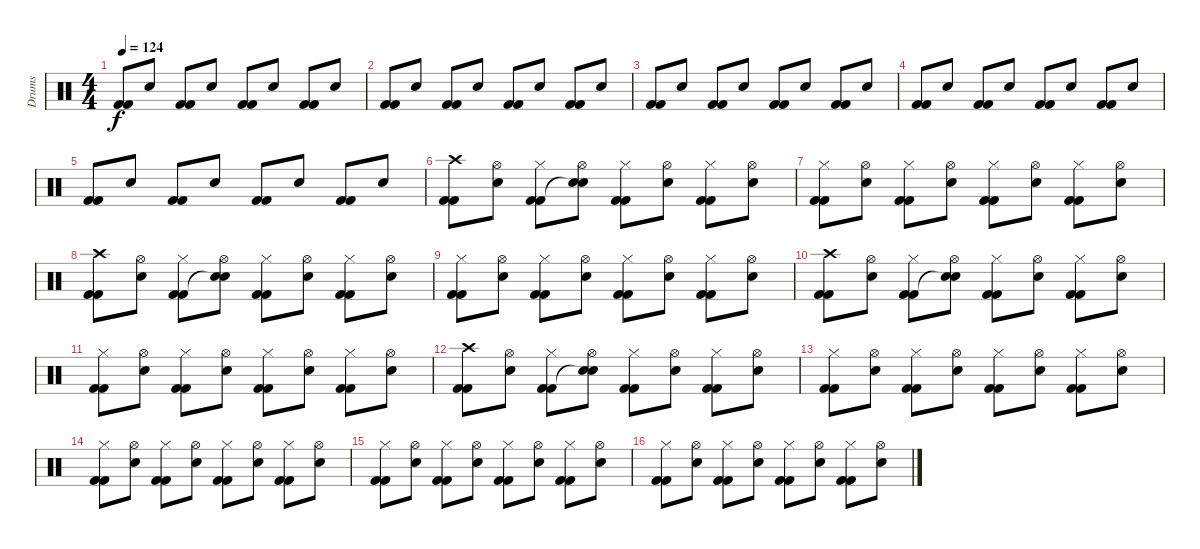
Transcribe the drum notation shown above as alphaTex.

\track ("Drums" "Drums") {instrument percussion}
\staff {score}
\articulation defaults
\ts (4 4)
\tempo 124
\clef neutral
\ks c
("Kick (hit) 2" "Kick (hit) 2").8{dy f} "Hand Clap (hit)".8 ("Kick (hit) 2" "Kick (hit) 2").8 "Hand Clap (hit)".8 ("Kick (hit) 2" "Kick (hit) 2").8 "Hand Clap (hit)".8 ("Kick (hit) 2" "Kick (hit) 2").8 "Hand Clap (hit)".8 |
("Kick (hit) 2" "Kick (hit) 2").8 "Hand Clap (hit)".8 ("Kick (hit) 2" "Kick (hit) 2").8 "Hand Clap (hit)".8 ("Kick (hit) 2" "Kick (hit) 2").8 "Hand Clap (hit)".8 ("Kick (hit) 2" "Kick (hit) 2").8 "Hand Clap (hit)".8 |
("Kick (hit) 2" "Kick (hit) 2").8 "Hand Clap (hit)".8 ("Kick (hit) 2" "Kick (hit) 2").8 "Hand Clap (hit)".8 ("Kick (hit) 2" "Kick (hit) 2").8 "Hand Clap (hit)".8 ("Kick (hit) 2" "Kick (hit) 2").8 "Hand Clap (hit)".8 |
("Kick (hit) 2" "Kick (hit) 2").8 "Hand Clap (hit)".8 ("Kick (hit) 2" "Kick (hit) 2").8 "Hand Clap (hit)".8 ("Kick (hit) 2" "Kick (hit) 2").8 "Hand Clap (hit)".8 ("Kick (hit) 2" "Kick (hit) 2").8 "Hand Clap (hit)".8 |
("Kick (hit) 2" "Kick (hit) 2").8 "Hand Clap (hit)".8 ("Kick (hit) 2" "Kick (hit) 2").8 "Hand Clap (hit)".8 ("Kick (hit) 2" "Kick (hit) 2").8 "Hand Clap (hit)".8 ("Kick (hit) 2" "Kick (hit) 2").8 "Hand Clap (hit)".8 |
("Kick (hit) 2" "Kick (hit) 2" "Crash high (hit)").8 ("Hand Clap (hit)" "Hi-Hat (open)").8 ("Kick (hit) 2" "Kick (hit) 2" "Hi-Hat (closed)").8 ("Hand Clap (hit)" "Snare (hit)"{t} "Hi-Hat (open)").8 ("Kick (hit) 2" "Kick (hit) 2" "Hi-Hat (closed)").8 ("Hand Clap (hit)" "Hi-Hat (open)").8 ("Kick (hit) 2" "Kick (hit) 2" "Hi-Hat (closed)").8 ("Hand Clap (hit)" "Hi-Hat (open)").8 |
("Kick (hit) 2" "Kick (hit) 2" "Hi-Hat (closed)").8 ("Hand Clap (hit)" "Hi-Hat (open)").8 ("Kick (hit) 2" "Kick (hit) 2" "Hi-Hat (closed)").8 ("Hand Clap (hit)" "Hi-Hat (open)").8 ("Kick (hit) 2" "Kick (hit) 2" "Hi-Hat (closed)").8 ("Hand Clap (hit)" "Hi-Hat (open)").8 ("Kick (hit) 2" "Kick (hit) 2" "Hi-Hat (closed)").8 ("Hand Clap (hit)" "Hi-Hat (open)").8 |
("Kick (hit) 2" "Kick (hit) 2" "Crash high (hit)").8 ("Hand Clap (hit)" "Hi-Hat (open)").8 ("Kick (hit) 2" "Kick (hit) 2" "Hi-Hat (closed)").8 ("Hand Clap (hit)" "Snare (hit)"{t} "Hi-Hat (open)").8 ("Kick (hit) 2" "Kick (hit) 2" "Hi-Hat (closed)").8 ("Hand Clap (hit)" "Hi-Hat (open)").8 ("Kick (hit) 2" "Kick (hit) 2" "Hi-Hat (closed)").8 ("Hand Clap (hit)" "Hi-Hat (open)").8 |
("Kick (hit) 2" "Kick (hit) 2" "Hi-Hat (closed)").8 ("Hand Clap (hit)" "Hi-Hat (open)").8 ("Kick (hit) 2" "Kick (hit) 2" "Hi-Hat (closed)").8 ("Hand Clap (hit)" "Hi-Hat (open)").8 ("Kick (hit) 2" "Kick (hit) 2" "Hi-Hat (closed)").8 ("Hand Clap (hit)" "Hi-Hat (open)").8 ("Kick (hit) 2" "Kick (hit) 2" "Hi-Hat (closed)").8 ("Hand Clap (hit)" "Hi-Hat (open)").8 |
("Kick (hit) 2" "Kick (hit) 2" "Crash high (hit)").8 ("Hand Clap (hit)" "Hi-Hat (open)").8 ("Kick (hit) 2" "Kick (hit) 2" "Hi-Hat (closed)").8 ("Hand Clap (hit)" "Snare (hit)"{t} "Hi-Hat (open)").8 ("Kick (hit) 2" "Kick (hit) 2" "Hi-Hat (closed)").8 ("Hand Clap (hit)" "Hi-Hat (open)").8 ("Kick (hit) 2" "Kick (hit) 2" "Hi-Hat (closed)").8 ("Hand Clap (hit)" "Hi-Hat (open)").8 |
("Kick (hit) 2" "Kick (hit) 2" "Hi-Hat (closed)").8 ("Hand Clap (hit)" "Hi-Hat (open)").8 ("Kick (hit) 2" "Kick (hit) 2" "Hi-Hat (closed)").8 ("Hand Clap (hit)" "Hi-Hat (open)").8 ("Kick (hit) 2" "Kick (hit) 2" "Hi-Hat (closed)").8 ("Hand Clap (hit)" "Hi-Hat (open)").8 ("Kick (hit) 2" "Kick (hit) 2" "Hi-Hat (closed)").8 ("Hand Clap (hit)" "Hi-Hat (open)").8 |
("Kick (hit) 2" "Kick (hit) 2" "Crash high (hit)").8 ("Hand Clap (hit)" "Hi-Hat (open)").8 ("Kick (hit) 2" "Kick (hit) 2" "Hi-Hat (closed)").8 ("Hand Clap (hit)" "Snare (hit)"{t} "Hi-Hat (open)").8 ("Kick (hit) 2" "Kick (hit) 2" "Hi-Hat (closed)").8 ("Hand Clap (hit)" "Hi-Hat (open)").8 ("Kick (hit) 2" "Kick (hit) 2" "Hi-Hat (closed)").8 ("Hand Clap (hit)" "Hi-Hat (open)").8 |
("Kick (hit) 2" "Kick (hit) 2" "Hi-Hat (closed)").8 ("Hand Clap (hit)" "Hi-Hat (open)").8 ("Kick (hit) 2" "Kick (hit) 2" "Hi-Hat (closed)").8 ("Hand Clap (hit)" "Hi-Hat (open)").8 ("Kick (hit) 2" "Kick (hit) 2" "Hi-Hat (closed)").8 ("Hand Clap (hit)" "Hi-Hat (open)").8 ("Kick (hit) 2" "Kick (hit) 2" "Hi-Hat (closed)").8 ("Hand Clap (hit)" "Hi-Hat (open)").8 |
("Kick (hit) 2" "Kick (hit) 2" "Hi-Hat (closed)").8 ("Hand Clap (hit)" "Hi-Hat (open)").8 ("Kick (hit) 2" "Kick (hit) 2" "Hi-Hat (closed)").8 ("Hand Clap (hit)" "Hi-Hat (open)").8 ("Kick (hit) 2" "Kick (hit) 2" "Hi-Hat (closed)").8 ("Hand Clap (hit)" "Hi-Hat (open)").8 ("Kick (hit) 2" "Kick (hit) 2" "Hi-Hat (closed)").8 ("Hand Clap (hit)" "Hi-Hat (open)").8 |
("Kick (hit) 2" "Kick (hit) 2" "Hi-Hat (closed)").8 ("Hand Clap (hit)" "Hi-Hat (open)").8 ("Kick (hit) 2" "Kick (hit) 2" "Hi-Hat (closed)").8 ("Hand Clap (hit)" "Hi-Hat (open)").8 ("Kick (hit) 2" "Kick (hit) 2" "Hi-Hat (closed)").8 ("Hand Clap (hit)" "Hi-Hat (open)").8 ("Kick (hit) 2" "Kick (hit) 2" "Hi-Hat (closed)").8 ("Hand Clap (hit)" "Hi-Hat (open)").8 |
("Kick (hit) 2" "Kick (hit) 2" "Hi-Hat (closed)").8 ("Hand Clap (hit)" "Hi-Hat (open)").8 ("Kick (hit) 2" "Kick (hit) 2" "Hi-Hat (closed)").8 ("Hand Clap (hit)" "Hi-Hat (open)").8 ("Kick (hit) 2" "Kick (hit) 2" "Hi-Hat (closed)").8 ("Hand Clap (hit)" "Hi-Hat (open)").8 ("Kick (hit) 2" "Kick (hit) 2" "Hi-Hat (closed)").8 ("Hand Clap (hit)" "Hi-Hat (open)").8
